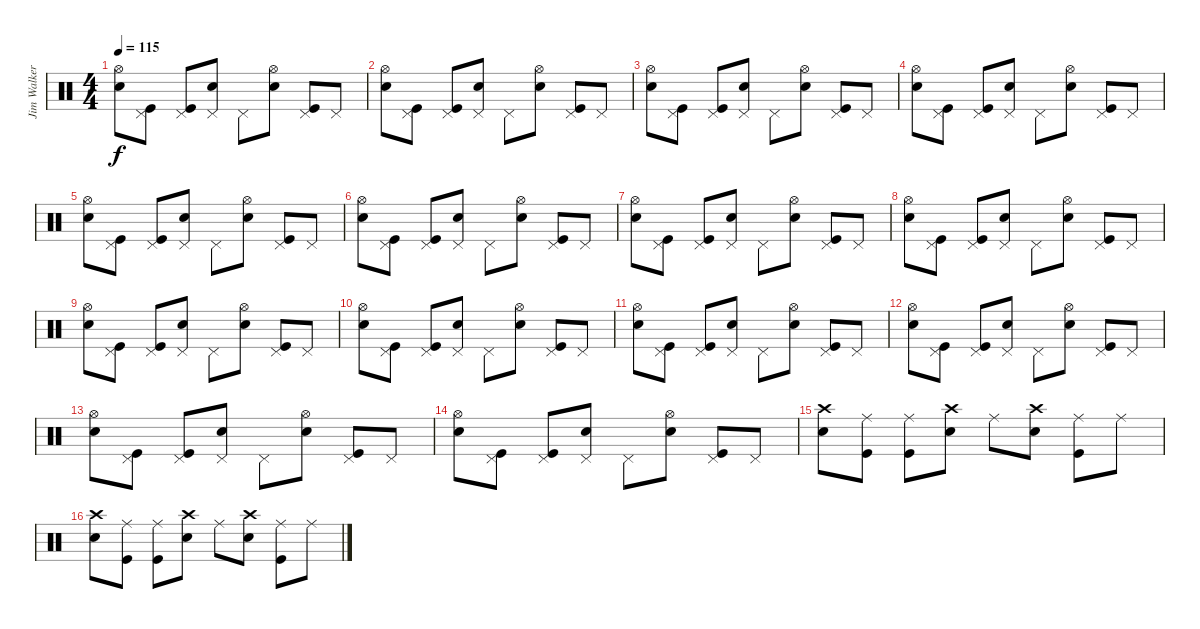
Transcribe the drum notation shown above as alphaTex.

\track ("Jim Walker-Drums" "Jim Walker") {instrument percussion}
\staff {score}
\articulation defaults
\ts (4 4)
\tempo 115
\clef neutral
\ks c
("Hi-Hat (open)" "Electric Snare (hit)").8{dy f} ("Pedal Hi-Hat (hit)" "Kick (hit)").8 ("Pedal Hi-Hat (hit)" "Kick (hit)").8 ("Pedal Hi-Hat (hit)" "Electric Snare (hit)").8 "Pedal Hi-Hat (hit)".8 ("Hi-Hat (open)" "Electric Snare (hit)").8 ("Pedal Hi-Hat (hit)" "Kick (hit)").8 "Pedal Hi-Hat (hit)".8 |
("Hi-Hat (open)" "Electric Snare (hit)").8 ("Pedal Hi-Hat (hit)" "Kick (hit)").8 ("Pedal Hi-Hat (hit)" "Kick (hit)").8 ("Pedal Hi-Hat (hit)" "Electric Snare (hit)").8 "Pedal Hi-Hat (hit)".8 ("Hi-Hat (open)" "Electric Snare (hit)").8 ("Pedal Hi-Hat (hit)" "Kick (hit)").8 "Pedal Hi-Hat (hit)".8 |
("Hi-Hat (open)" "Electric Snare (hit)").8 ("Pedal Hi-Hat (hit)" "Kick (hit)").8 ("Pedal Hi-Hat (hit)" "Kick (hit)").8 ("Pedal Hi-Hat (hit)" "Electric Snare (hit)").8 "Pedal Hi-Hat (hit)".8 ("Hi-Hat (open)" "Electric Snare (hit)").8 ("Pedal Hi-Hat (hit)" "Kick (hit)").8 "Pedal Hi-Hat (hit)".8 |
("Hi-Hat (open)" "Electric Snare (hit)").8 ("Pedal Hi-Hat (hit)" "Kick (hit)").8 ("Pedal Hi-Hat (hit)" "Kick (hit)").8 ("Pedal Hi-Hat (hit)" "Electric Snare (hit)").8 "Pedal Hi-Hat (hit)".8 ("Hi-Hat (open)" "Electric Snare (hit)").8 ("Pedal Hi-Hat (hit)" "Kick (hit)").8 "Pedal Hi-Hat (hit)".8 |
("Hi-Hat (open)" "Electric Snare (hit)").8 ("Pedal Hi-Hat (hit)" "Kick (hit)").8 ("Pedal Hi-Hat (hit)" "Kick (hit)").8 ("Pedal Hi-Hat (hit)" "Electric Snare (hit)").8 "Pedal Hi-Hat (hit)".8 ("Hi-Hat (open)" "Electric Snare (hit)").8 ("Pedal Hi-Hat (hit)" "Kick (hit)").8 "Pedal Hi-Hat (hit)".8 |
("Hi-Hat (open)" "Electric Snare (hit)").8 ("Pedal Hi-Hat (hit)" "Kick (hit)").8 ("Pedal Hi-Hat (hit)" "Kick (hit)").8 ("Pedal Hi-Hat (hit)" "Electric Snare (hit)").8 "Pedal Hi-Hat (hit)".8 ("Hi-Hat (open)" "Electric Snare (hit)").8 ("Pedal Hi-Hat (hit)" "Kick (hit)").8 "Pedal Hi-Hat (hit)".8 |
("Hi-Hat (open)" "Electric Snare (hit)").8 ("Pedal Hi-Hat (hit)" "Kick (hit)").8 ("Pedal Hi-Hat (hit)" "Kick (hit)").8 ("Pedal Hi-Hat (hit)" "Electric Snare (hit)").8 "Pedal Hi-Hat (hit)".8 ("Hi-Hat (open)" "Electric Snare (hit)").8 ("Pedal Hi-Hat (hit)" "Kick (hit)").8 "Pedal Hi-Hat (hit)".8 |
("Hi-Hat (open)" "Electric Snare (hit)").8 ("Pedal Hi-Hat (hit)" "Kick (hit)").8 ("Pedal Hi-Hat (hit)" "Kick (hit)").8 ("Pedal Hi-Hat (hit)" "Electric Snare (hit)").8 "Pedal Hi-Hat (hit)".8 ("Hi-Hat (open)" "Electric Snare (hit)").8 ("Pedal Hi-Hat (hit)" "Kick (hit)").8 "Pedal Hi-Hat (hit)".8 |
("Hi-Hat (open)" "Electric Snare (hit)").8 ("Pedal Hi-Hat (hit)" "Kick (hit)").8 ("Pedal Hi-Hat (hit)" "Kick (hit)").8 ("Pedal Hi-Hat (hit)" "Electric Snare (hit)").8 "Pedal Hi-Hat (hit)".8 ("Hi-Hat (open)" "Electric Snare (hit)").8 ("Pedal Hi-Hat (hit)" "Kick (hit)").8 "Pedal Hi-Hat (hit)".8 |
("Hi-Hat (open)" "Electric Snare (hit)").8 ("Pedal Hi-Hat (hit)" "Kick (hit)").8 ("Pedal Hi-Hat (hit)" "Kick (hit)").8 ("Pedal Hi-Hat (hit)" "Electric Snare (hit)").8 "Pedal Hi-Hat (hit)".8 ("Hi-Hat (open)" "Electric Snare (hit)").8 ("Pedal Hi-Hat (hit)" "Kick (hit)").8 "Pedal Hi-Hat (hit)".8 |
("Hi-Hat (open)" "Electric Snare (hit)").8 ("Pedal Hi-Hat (hit)" "Kick (hit)").8 ("Pedal Hi-Hat (hit)" "Kick (hit)").8 ("Pedal Hi-Hat (hit)" "Electric Snare (hit)").8 "Pedal Hi-Hat (hit)".8 ("Hi-Hat (open)" "Electric Snare (hit)").8 ("Pedal Hi-Hat (hit)" "Kick (hit)").8 "Pedal Hi-Hat (hit)".8 |
("Hi-Hat (open)" "Electric Snare (hit)").8 ("Pedal Hi-Hat (hit)" "Kick (hit)").8 ("Pedal Hi-Hat (hit)" "Kick (hit)").8 ("Pedal Hi-Hat (hit)" "Electric Snare (hit)").8 "Pedal Hi-Hat (hit)".8 ("Hi-Hat (open)" "Electric Snare (hit)").8 ("Pedal Hi-Hat (hit)" "Kick (hit)").8 "Pedal Hi-Hat (hit)".8 |
("Hi-Hat (open)" "Electric Snare (hit)").8 ("Pedal Hi-Hat (hit)" "Kick (hit)").8 ("Pedal Hi-Hat (hit)" "Kick (hit)").8 ("Pedal Hi-Hat (hit)" "Electric Snare (hit)").8 "Pedal Hi-Hat (hit)".8 ("Hi-Hat (open)" "Electric Snare (hit)").8 ("Pedal Hi-Hat (hit)" "Kick (hit)").8 "Pedal Hi-Hat (hit)".8 |
("Hi-Hat (open)" "Electric Snare (hit)").8 ("Pedal Hi-Hat (hit)" "Kick (hit)").8 ("Pedal Hi-Hat (hit)" "Kick (hit)").8 ("Pedal Hi-Hat (hit)" "Electric Snare (hit)").8 "Pedal Hi-Hat (hit)".8 ("Hi-Hat (open)" "Electric Snare (hit)").8 ("Pedal Hi-Hat (hit)" "Kick (hit)").8 "Pedal Hi-Hat (hit)".8 |
("Crash high (hit)" "Electric Snare (hit)").8 ("Ride (middle)" "Kick (hit)").8 ("Ride (middle)" "Kick (hit)").8 ("Crash high (hit)" "Electric Snare (hit)").8 "Ride (middle)".8 ("Crash high (hit)" "Electric Snare (hit)").8 ("Ride (middle)" "Kick (hit)").8 "Ride (middle)".8 |
("Crash high (hit)" "Electric Snare (hit)").8 ("Ride (middle)" "Kick (hit)").8 ("Ride (middle)" "Kick (hit)").8 ("Crash high (hit)" "Electric Snare (hit)").8 "Ride (middle)".8 ("Crash high (hit)" "Electric Snare (hit)").8 ("Ride (middle)" "Kick (hit)").8 "Ride (middle)".8
